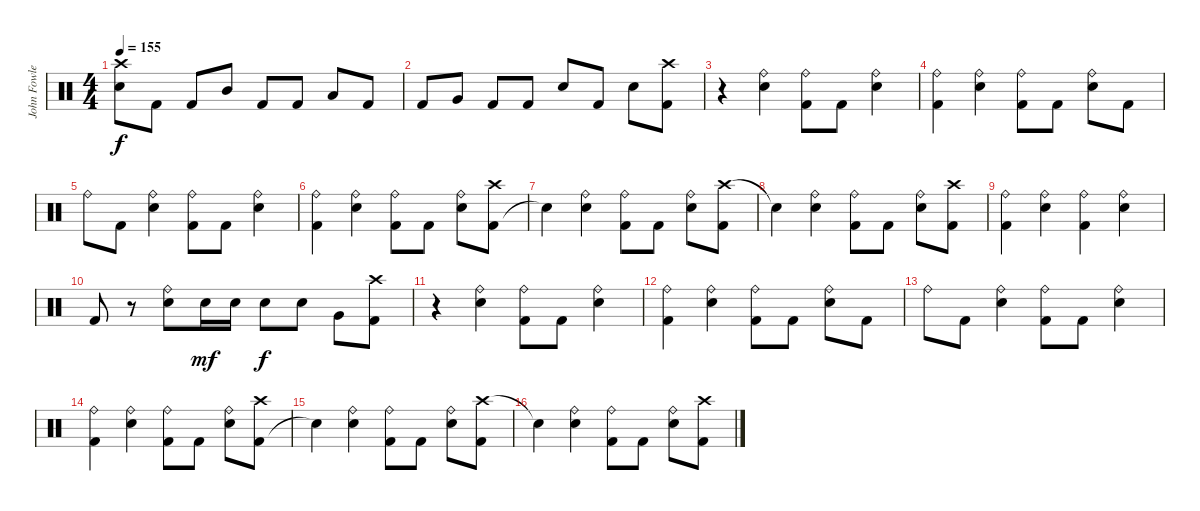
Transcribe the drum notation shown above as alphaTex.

\track ("John Fowler - Drums" "John Fowle") {instrument percussion}
\staff {score}
\articulation defaults
\ts (4 4)
\tempo 155
\clef neutral
\ks c
("Electric Snare (hit)" "Crash high (hit)").8{dy f} "Kick (hit) 2".8 "Kick (hit) 2".8 "Mid Tom (hit)".8 "Kick (hit) 2".8 "Kick (hit) 2".8 "Low Tom (hit)".8 "Kick (hit) 2".8 |
"Kick (hit) 2".8 "Very Low Tom (hit)".8 "Kick (hit) 2".8 "Kick (hit) 2".8 "Electric Snare (hit)".8 "Kick (hit) 2".8 "Electric Snare (hit)".8 ("Kick (hit) 2" "Crash high (hit)").8 |
r.4 ("Ride (bell)" "Electric Snare (hit)").4 ("Ride (bell)" "Kick (hit) 2").8 "Kick (hit) 2".8 ("Electric Snare (hit)" "Ride (bell)").4 |
("Ride (bell)" "Kick (hit) 2").4 ("Ride (bell)" "Electric Snare (hit)").4 ("Kick (hit) 2" "Ride (bell)").8 "Kick (hit) 2".8 ("Ride (bell)" "Electric Snare (hit)").8 "Kick (hit) 2".8 |
"Ride (bell)".8 "Kick (hit) 2".8 ("Ride (bell)" "Electric Snare (hit)").4 ("Ride (bell)" "Kick (hit) 2").8 "Kick (hit) 2".8 ("Ride (bell)" "Electric Snare (hit)").4 |
("Ride (bell)" "Kick (hit) 2").4 ("Electric Snare (hit)" "Ride (bell)").4 ("Kick (hit) 2" "Ride (bell)").8 "Kick (hit) 2".8 ("Electric Snare (hit)" "Ride (bell)").8 ("Kick (hit) 2" "Crash high (hit)").8 |
"Snare (hit)"{t}.4 ("Ride (bell)" "Electric Snare (hit)").4 ("Ride (bell)" "Kick (hit) 2").8 "Kick (hit) 2".8 ("Ride (bell)" "Electric Snare (hit)").8 ("Crash high (hit)" "Kick (hit) 2").8 |
"Snare (hit)"{t}.4 ("Ride (bell)" "Electric Snare (hit)").4 ("Ride (bell)" "Kick (hit) 2").8 "Kick (hit) 2".8 ("Ride (bell)" "Electric Snare (hit)").8 ("Kick (hit) 2" "Crash high (hit)").8 |
("Kick (hit) 2" "Ride (bell)").4 ("Electric Snare (hit)" "Ride (bell)").4 ("Kick (hit) 2" "Ride (bell)").4 ("Electric Snare (hit)" "Ride (bell)").4 |
"Kick (hit) 2".8 r.8 ("Ride (bell)" "Electric Snare (hit)").8 "Electric Snare (hit)".16{dy mf} "Electric Snare (hit)".16 "Electric Snare (hit)".8{dy f} "Electric Snare (hit)".8 "Very Low Tom (hit)".8 ("Kick (hit) 2" "Crash high (hit)").8 |
r.4 ("Ride (bell)" "Electric Snare (hit)").4 ("Ride (bell)" "Kick (hit) 2").8 "Kick (hit) 2".8 ("Electric Snare (hit)" "Ride (bell)").4 |
("Ride (bell)" "Kick (hit) 2").4 ("Ride (bell)" "Electric Snare (hit)").4 ("Kick (hit) 2" "Ride (bell)").8 "Kick (hit) 2".8 ("Ride (bell)" "Electric Snare (hit)").8 "Kick (hit) 2".8 |
"Ride (bell)".8 "Kick (hit) 2".8 ("Ride (bell)" "Electric Snare (hit)").4 ("Ride (bell)" "Kick (hit) 2").8 "Kick (hit) 2".8 ("Ride (bell)" "Electric Snare (hit)").4 |
("Ride (bell)" "Kick (hit) 2").4 ("Electric Snare (hit)" "Ride (bell)").4 ("Kick (hit) 2" "Ride (bell)").8 "Kick (hit) 2".8 ("Electric Snare (hit)" "Ride (bell)").8 ("Kick (hit) 2" "Crash high (hit)").8 |
"Snare (hit)"{t}.4 ("Ride (bell)" "Electric Snare (hit)").4 ("Ride (bell)" "Kick (hit) 2").8 "Kick (hit) 2".8 ("Ride (bell)" "Electric Snare (hit)").8 ("Crash high (hit)" "Kick (hit) 2").8 |
"Snare (hit)"{t}.4 ("Ride (bell)" "Electric Snare (hit)").4 ("Ride (bell)" "Kick (hit) 2").8 "Kick (hit) 2".8 ("Ride (bell)" "Electric Snare (hit)").8 ("Kick (hit) 2" "Crash high (hit)").8
